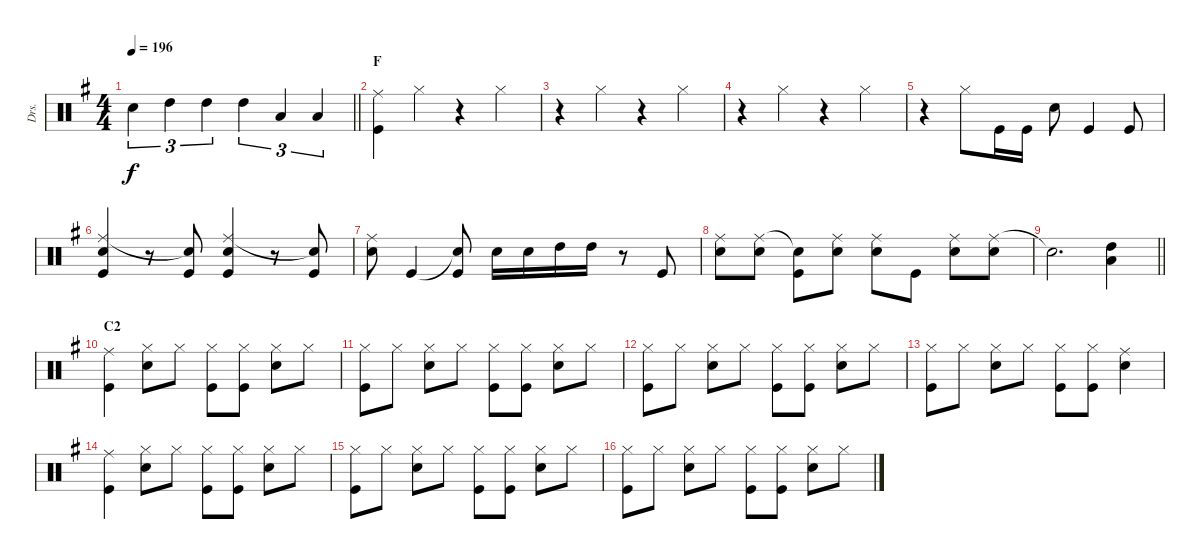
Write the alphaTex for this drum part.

\track ("Drs." "Drs.") {instrument percussion}
\staff {score}
\articulation defaults
\ts (4 4)
\tempo 196
\clef neutral
\barLineRight lightlight
\ks g "Snare (hit) 2".4{tu (3 2) dy f} "High Tom (hit)".4{tu (3 2)} "High Tom (hit)".4{tu (3 2)} "High Tom (hit)".4{tu (3 2)} "Low Tom (hit)".4{tu (3 2)} "Low Tom (hit)".4{tu (3 2)}
|
\section ("" "F")
("Ride (middle)" "Kick (hit)").4 "Hi-Hat (closed)".4 r.4 "Hi-Hat (closed)".4 |
r.4 "Hi-Hat (closed)".4 r.4 "Hi-Hat (closed)".4 |
r.4 "Hi-Hat (closed)".4 r.4 "Hi-Hat (closed)".4 |
r.4 "Hi-Hat (closed)".8 "Kick (hit)".16 "Kick (hit)".16 "Snare (hit) 2".8 "Kick (hit)".4 "Kick (hit)".8 |
("Ride (middle)" "Snare (hit) 2" "Kick (hit)").4 r.8 ("Snare (hit)"{t} "Kick (hit)").8 ("Ride (middle)" "Snare (hit) 2" "Kick (hit)").4 r.8 ("Snare (hit)"{t} "Kick (hit)").8 |
("Ride (middle)" "Snare (hit) 2").8 "Kick (hit)".4 ("Snare (hit)"{t} "Kick (hit)").8 "Snare (hit) 2".16 "Snare (hit) 2".16 "High Tom (hit)".16 "High Tom (hit)".16 r.8 "Kick (hit)".8 |
("Ride (middle)" "Snare (hit) 2").8 ("Ride (middle)" "Snare (hit) 2").8 ("Snare (hit)"{t} "Kick (hit)").8 ("Ride (middle)" "Snare (hit) 2").8 ("Ride (middle)" "Snare (hit) 2").8 "Kick (hit)".8 ("Ride (middle)" "Snare (hit) 2").8 ("Ride (middle)" "Snare (hit) 2").8 |
\barLineRight lightlight "Snare (hit)"{t}.2{d}
("High Tom (hit)" "Low Tom (hit)").4 |
\section ("" "C2")
("Ride (middle)" "Kick (hit)").4 ("Hi-Hat (closed)" "Snare (hit) 2").8 "Hi-Hat (closed)".8 ("Hi-Hat (closed)" "Kick (hit)").8 ("Hi-Hat (closed)" "Kick (hit)").8 ("Hi-Hat (closed)" "Snare (hit) 2").8 "Hi-Hat (closed)".8 |
("Hi-Hat (closed)" "Kick (hit)").8 "Hi-Hat (closed)".8 ("Hi-Hat (closed)" "Snare (hit) 2").8 "Hi-Hat (closed)".8 ("Hi-Hat (closed)" "Kick (hit)").8 ("Hi-Hat (closed)" "Kick (hit)").8 ("Hi-Hat (closed)" "Snare (hit) 2").8 "Hi-Hat (closed)".8 |
("Hi-Hat (closed)" "Kick (hit)").8 "Hi-Hat (closed)".8 ("Hi-Hat (closed)" "Snare (hit) 2").8 "Hi-Hat (closed)".8 ("Hi-Hat (closed)" "Kick (hit)").8 ("Hi-Hat (closed)" "Kick (hit)").8 ("Hi-Hat (closed)" "Snare (hit) 2").8 "Hi-Hat (closed)".8 |
("Hi-Hat (closed)" "Kick (hit)").8 "Hi-Hat (closed)".8 ("Hi-Hat (closed)" "Snare (hit) 2").8 "Hi-Hat (closed)".8 ("Hi-Hat (closed)" "Kick (hit)").8 ("Hi-Hat (closed)" "Kick (hit)").8 ("Ride (middle)" "Snare (hit) 2").4 |
("Ride (middle)" "Kick (hit)").4 ("Hi-Hat (closed)" "Snare (hit) 2").8 "Hi-Hat (closed)".8 ("Hi-Hat (closed)" "Kick (hit)").8 ("Hi-Hat (closed)" "Kick (hit)").8 ("Hi-Hat (closed)" "Snare (hit) 2").8 "Hi-Hat (closed)".8 |
("Hi-Hat (closed)" "Kick (hit)").8 "Hi-Hat (closed)".8 ("Hi-Hat (closed)" "Snare (hit) 2").8 "Hi-Hat (closed)".8 ("Hi-Hat (closed)" "Kick (hit)").8 ("Hi-Hat (closed)" "Kick (hit)").8 ("Hi-Hat (closed)" "Snare (hit) 2").8 "Hi-Hat (closed)".8 |
("Hi-Hat (closed)" "Kick (hit)").8 "Hi-Hat (closed)".8 ("Hi-Hat (closed)" "Snare (hit) 2").8 "Hi-Hat (closed)".8 ("Hi-Hat (closed)" "Kick (hit)").8 ("Hi-Hat (closed)" "Kick (hit)").8 ("Hi-Hat (closed)" "Snare (hit) 2").8 "Hi-Hat (closed)".8
